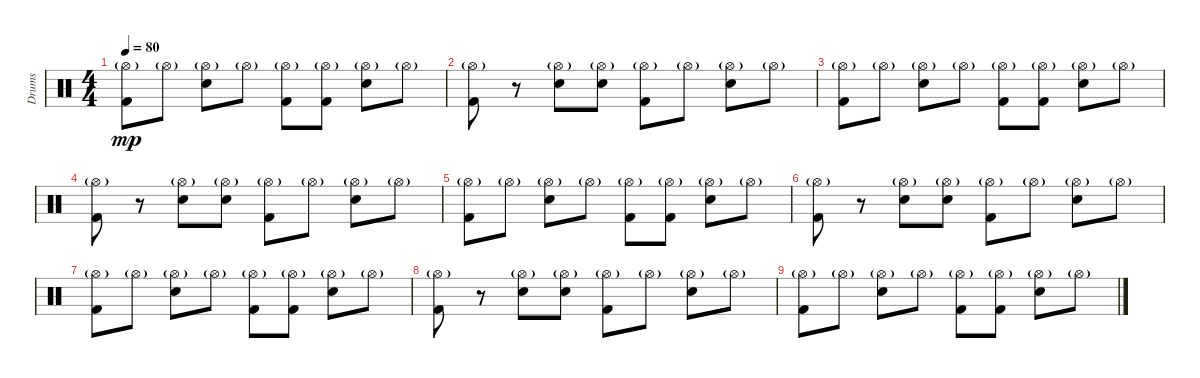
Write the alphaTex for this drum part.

\track ("Drums" "Drums") {instrument percussion}
\staff {score}
\articulation defaults
\ts (4 4)
\tempo 80
\clef neutral
\ks c
("Hi-Hat (open)"{g} "Kick (hit) 2").8{dy mp} "Hi-Hat (open)"{g}.8 ("Hi-Hat (open)"{g} "Snare (hit) 2").8 "Hi-Hat (open)"{g}.8 ("Hi-Hat (open)"{g} "Kick (hit) 2").8 ("Hi-Hat (open)"{g} "Kick (hit) 2").8 ("Hi-Hat (open)"{g} "Snare (hit) 2").8 "Hi-Hat (open)"{g}.8 |
("Hi-Hat (open)"{g} "Kick (hit) 2").8 r.8 ("Hi-Hat (open)"{g} "Snare (hit) 2").8 ("Hi-Hat (open)"{g} "Snare (hit) 2").8 ("Hi-Hat (open)"{g} "Kick (hit) 2").8 "Hi-Hat (open)"{g}.8 ("Hi-Hat (open)"{g} "Snare (hit) 2").8 "Hi-Hat (open)"{g}.8 |
("Hi-Hat (open)"{g} "Kick (hit) 2").8 "Hi-Hat (open)"{g}.8 ("Hi-Hat (open)"{g} "Snare (hit) 2").8 "Hi-Hat (open)"{g}.8 ("Hi-Hat (open)"{g} "Kick (hit) 2").8 ("Hi-Hat (open)"{g} "Kick (hit) 2").8 ("Hi-Hat (open)"{g} "Snare (hit) 2").8 "Hi-Hat (open)"{g}.8 |
("Hi-Hat (open)"{g} "Kick (hit) 2").8 r.8 ("Hi-Hat (open)"{g} "Snare (hit) 2").8 ("Hi-Hat (open)"{g} "Snare (hit) 2").8 ("Hi-Hat (open)"{g} "Kick (hit) 2").8 "Hi-Hat (open)"{g}.8 ("Hi-Hat (open)"{g} "Snare (hit) 2").8 "Hi-Hat (open)"{g}.8 |
("Hi-Hat (open)"{g} "Kick (hit) 2").8 "Hi-Hat (open)"{g}.8 ("Hi-Hat (open)"{g} "Snare (hit) 2").8 "Hi-Hat (open)"{g}.8 ("Hi-Hat (open)"{g} "Kick (hit) 2").8 ("Hi-Hat (open)"{g} "Kick (hit) 2").8 ("Hi-Hat (open)"{g} "Snare (hit) 2").8 "Hi-Hat (open)"{g}.8 |
("Hi-Hat (open)"{g} "Kick (hit) 2").8 r.8 ("Hi-Hat (open)"{g} "Snare (hit) 2").8 ("Hi-Hat (open)"{g} "Snare (hit) 2").8 ("Hi-Hat (open)"{g} "Kick (hit) 2").8 "Hi-Hat (open)"{g}.8 ("Hi-Hat (open)"{g} "Snare (hit) 2").8 "Hi-Hat (open)"{g}.8 |
("Hi-Hat (open)"{g} "Kick (hit) 2").8 "Hi-Hat (open)"{g}.8 ("Hi-Hat (open)"{g} "Snare (hit) 2").8 "Hi-Hat (open)"{g}.8 ("Hi-Hat (open)"{g} "Kick (hit) 2").8 ("Hi-Hat (open)"{g} "Kick (hit) 2").8 ("Hi-Hat (open)"{g} "Snare (hit) 2").8 "Hi-Hat (open)"{g}.8 |
("Hi-Hat (open)"{g} "Kick (hit) 2").8 r.8 ("Hi-Hat (open)"{g} "Snare (hit) 2").8 ("Hi-Hat (open)"{g} "Snare (hit) 2").8 ("Hi-Hat (open)"{g} "Kick (hit) 2").8 "Hi-Hat (open)"{g}.8 ("Hi-Hat (open)"{g} "Snare (hit) 2").8 "Hi-Hat (open)"{g}.8 |
("Hi-Hat (open)"{g} "Kick (hit) 2").8 "Hi-Hat (open)"{g}.8 ("Hi-Hat (open)"{g} "Snare (hit) 2").8 "Hi-Hat (open)"{g}.8 ("Hi-Hat (open)"{g} "Kick (hit) 2").8 ("Hi-Hat (open)"{g} "Kick (hit) 2").8 ("Hi-Hat (open)"{g} "Snare (hit) 2").8 "Hi-Hat (open)"{g}.8
